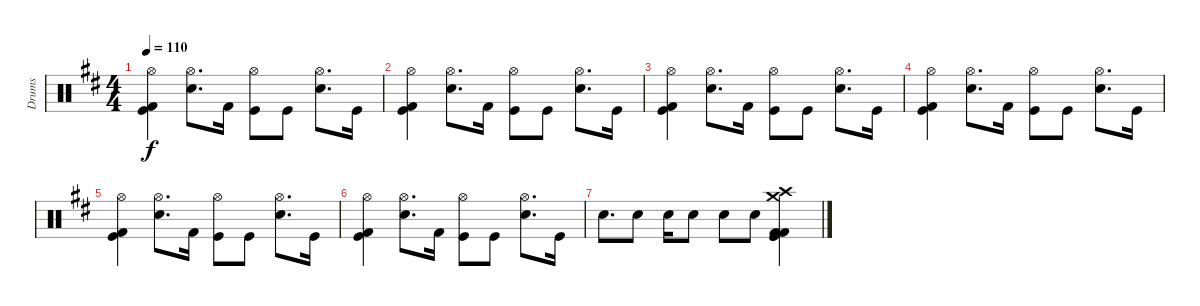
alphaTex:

\track ("Drums" "Drums") {instrument percussion}
\staff {score}
\articulation defaults
\ts (4 4)
\tempo 110
\clef neutral
\ks d
("Kick (hit) 2" "Kick (hit)" "Hi-Hat (open)").4{dy f} ("Snare (hit) 2" "Hi-Hat (open)").8{d} "Kick (hit) 2".16 ("Kick (hit)" "Hi-Hat (open)").8 "Kick (hit)".8 ("Snare (hit) 2" "Hi-Hat (open)").8{d} "Kick (hit)".16 |
("Kick (hit) 2" "Kick (hit)" "Hi-Hat (open)").4 ("Snare (hit) 2" "Hi-Hat (open)").8{d} "Kick (hit) 2".16 ("Kick (hit)" "Hi-Hat (open)").8 "Kick (hit)".8 ("Snare (hit) 2" "Hi-Hat (open)").8{d} "Kick (hit)".16 |
("Kick (hit) 2" "Kick (hit)" "Hi-Hat (open)").4 ("Snare (hit) 2" "Hi-Hat (open)").8{d} "Kick (hit) 2".16 ("Kick (hit)" "Hi-Hat (open)").8 "Kick (hit)".8 ("Snare (hit) 2" "Hi-Hat (open)").8{d} "Kick (hit)".16 |
("Kick (hit) 2" "Kick (hit)" "Hi-Hat (open)").4 ("Snare (hit) 2" "Hi-Hat (open)").8{d} "Kick (hit) 2".16 ("Kick (hit)" "Hi-Hat (open)").8 "Kick (hit)".8 ("Snare (hit) 2" "Hi-Hat (open)").8{d} "Kick (hit)".16 |
("Kick (hit) 2" "Kick (hit)" "Hi-Hat (open)").4 ("Snare (hit) 2" "Hi-Hat (open)").8{d} "Kick (hit) 2".16 ("Kick (hit)" "Hi-Hat (open)").8 "Kick (hit)".8 ("Snare (hit) 2" "Hi-Hat (open)").8{d} "Kick (hit)".16 |
("Kick (hit) 2" "Kick (hit)" "Hi-Hat (open)").4 ("Snare (hit) 2" "Hi-Hat (open)").8{d} "Kick (hit) 2".16 ("Kick (hit)" "Hi-Hat (open)").8 "Kick (hit)".8 ("Snare (hit) 2" "Hi-Hat (open)").8{d} "Kick (hit)".16 |
"Electric Snare (hit)".8{d} "Electric Snare (hit)".8 "Electric Snare (hit)".16 "Electric Snare (hit)".8 "Electric Snare (hit)".8 "Electric Snare (hit)".8 ("Crash high (hit)" "Crash medium (hit)" "Kick (hit)" "Kick (hit) 2" "Kick (hit)" "Kick (hit) 2").4
